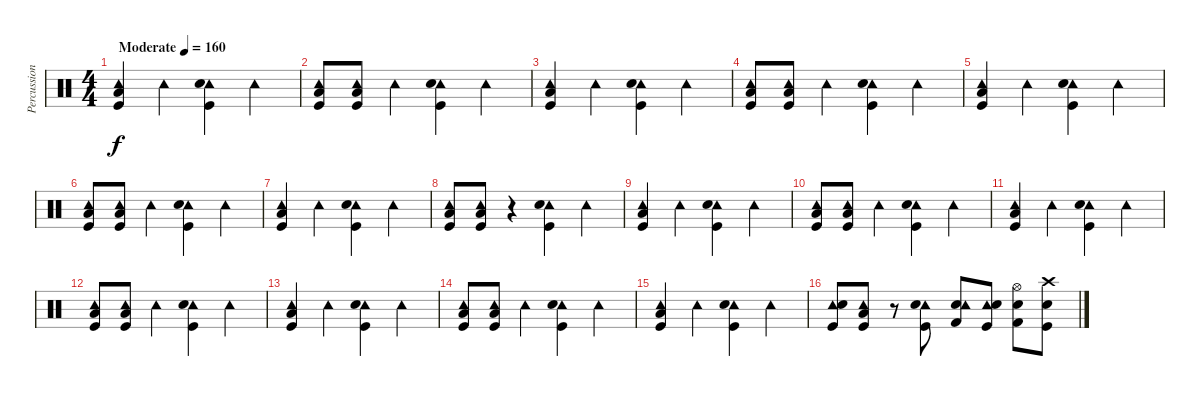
\track ("Percussions" "Percussion") {instrument percussion}
\staff {score}
\articulation defaults
\ts (4 4)
\tempo (160 "Moderate")
\clef neutral
\ks c
("Tambourine (hit)" "Low Floor Tom (hit)" "Kick (hit)").4{dy f} "Tambourine (hit)".4 ("Kick (hit)" "Tambourine (hit)" "Snare (hit) 2").4 "Tambourine (hit)".4 |
("Tambourine (hit)" "Low Floor Tom (hit)" "Kick (hit)").8 ("Tambourine (hit)" "Low Floor Tom (hit)" "Kick (hit)").8 "Tambourine (hit)".4 ("Tambourine (hit)" "Snare (hit) 2" "Kick (hit)").4 "Tambourine (hit)".4 |
("Tambourine (hit)" "Low Floor Tom (hit)" "Kick (hit)").4 "Tambourine (hit)".4 ("Kick (hit)" "Tambourine (hit)" "Snare (hit) 2").4 "Tambourine (hit)".4 |
("Tambourine (hit)" "Low Floor Tom (hit)" "Kick (hit)").8 ("Tambourine (hit)" "Low Floor Tom (hit)" "Kick (hit)").8 "Tambourine (hit)".4 ("Tambourine (hit)" "Snare (hit) 2" "Kick (hit)").4 "Tambourine (hit)".4 |
("Tambourine (hit)" "Low Floor Tom (hit)" "Kick (hit)").4 "Tambourine (hit)".4 ("Kick (hit)" "Tambourine (hit)" "Snare (hit) 2").4 "Tambourine (hit)".4 |
("Tambourine (hit)" "Low Floor Tom (hit)" "Kick (hit)").8 ("Tambourine (hit)" "Low Floor Tom (hit)" "Kick (hit)").8 "Tambourine (hit)".4 ("Tambourine (hit)" "Snare (hit) 2" "Kick (hit)").4 "Tambourine (hit)".4 |
("Tambourine (hit)" "Low Floor Tom (hit)" "Kick (hit)").4 "Tambourine (hit)".4 ("Kick (hit)" "Tambourine (hit)" "Snare (hit) 2").4 "Tambourine (hit)".4 |
("Tambourine (hit)" "Low Floor Tom (hit)" "Kick (hit)").8 ("Tambourine (hit)" "Low Floor Tom (hit)" "Kick (hit)").8 r.4 ("Tambourine (hit)" "Snare (hit) 2" "Kick (hit)").4 "Tambourine (hit)".4 |
("Tambourine (hit)" "Low Floor Tom (hit)" "Kick (hit)").4 "Tambourine (hit)".4 ("Kick (hit)" "Tambourine (hit)" "Snare (hit) 2").4 "Tambourine (hit)".4 |
("Tambourine (hit)" "Low Floor Tom (hit)" "Kick (hit)").8 ("Tambourine (hit)" "Low Floor Tom (hit)" "Kick (hit)").8 "Tambourine (hit)".4 ("Tambourine (hit)" "Snare (hit) 2" "Kick (hit)").4 "Tambourine (hit)".4 |
("Tambourine (hit)" "Low Floor Tom (hit)" "Kick (hit)").4 "Tambourine (hit)".4 ("Kick (hit)" "Tambourine (hit)" "Snare (hit) 2").4 "Tambourine (hit)".4 |
("Tambourine (hit)" "Low Floor Tom (hit)" "Kick (hit)").8 ("Tambourine (hit)" "Low Floor Tom (hit)" "Kick (hit)").8 "Tambourine (hit)".4 ("Tambourine (hit)" "Snare (hit) 2" "Kick (hit)").4 "Tambourine (hit)".4 |
("Tambourine (hit)" "Low Floor Tom (hit)" "Kick (hit)").4 "Tambourine (hit)".4 ("Kick (hit)" "Tambourine (hit)" "Snare (hit) 2").4 "Tambourine (hit)".4 |
("Tambourine (hit)" "Low Floor Tom (hit)" "Kick (hit)").8 ("Tambourine (hit)" "Low Floor Tom (hit)" "Kick (hit)").8 "Tambourine (hit)".4 ("Tambourine (hit)" "Snare (hit) 2" "Kick (hit)").4 "Tambourine (hit)".4 |
("Tambourine (hit)" "Low Floor Tom (hit)" "Kick (hit)").4 "Tambourine (hit)".4 ("Kick (hit)" "Tambourine (hit)" "Snare (hit) 2").4 "Tambourine (hit)".4 |
("Tambourine (hit)" "Snare (hit) 2" "Kick (hit)").8 ("Tambourine (hit)" "Low Floor Tom (hit)" "Kick (hit)").8 r.8 ("Tambourine (hit)" "Snare (hit) 2" "Kick (hit)").8 ("Electric Snare (hit)" "Tambourine (hit)" "Kick (hit) 2").8 ("Tambourine (hit)" "Snare (hit) 2" "Kick (hit)").8 ("Hi-Hat (open)" "Snare (hit) 2" "Kick (hit) 2").8 ("Crash high (hit)" "Snare (hit) 2" "Kick (hit)").8
